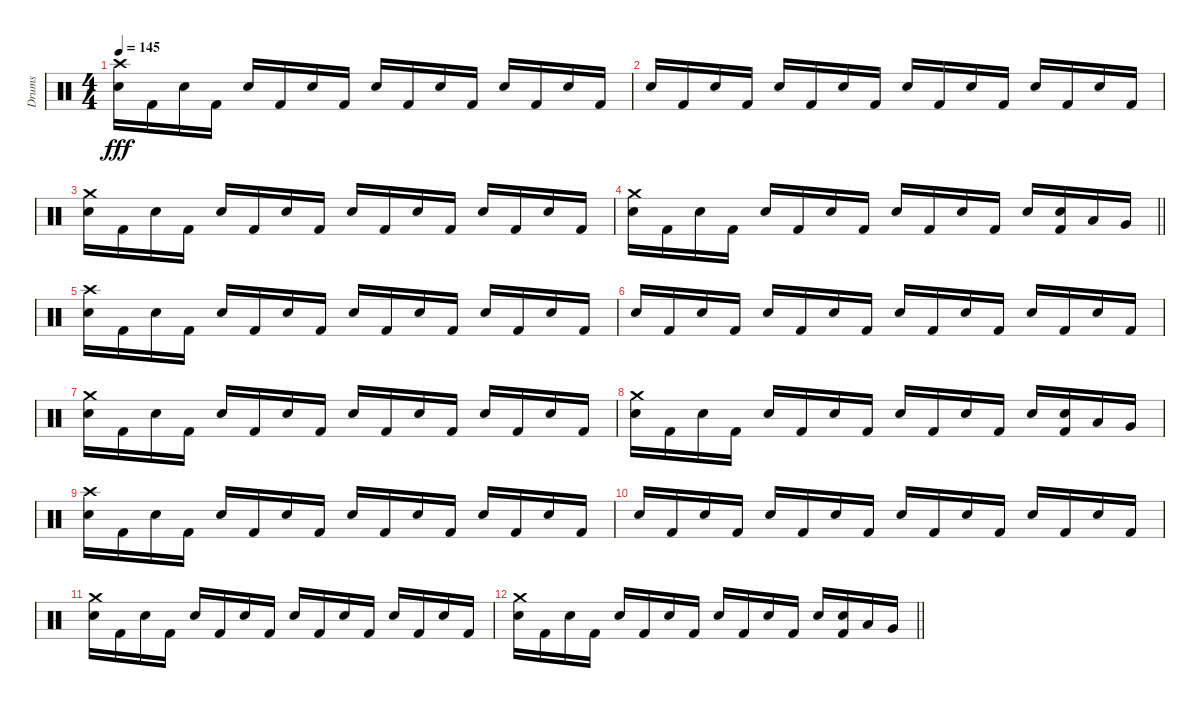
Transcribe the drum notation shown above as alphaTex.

\track ("Drums" "Drums") {instrument percussion}
\staff {score}
\articulation defaults
\ts (4 4)
\tempo 145
\clef neutral
\ks c
("Crash high (hit)" "Snare (hit) 2").16{dy fff} "Kick (hit) 2".16 "Snare (hit) 2".16 "Kick (hit) 2".16 "Snare (hit) 2".16 "Kick (hit) 2".16 "Snare (hit) 2".16 "Kick (hit) 2".16 "Snare (hit) 2".16 "Kick (hit) 2".16 "Snare (hit) 2".16 "Kick (hit) 2".16 "Snare (hit) 2".16 "Kick (hit) 2".16 "Snare (hit) 2".16 "Kick (hit) 2".16 |
"Snare (hit) 2".16 "Kick (hit) 2".16 "Snare (hit) 2".16 "Kick (hit) 2".16 "Snare (hit) 2".16 "Kick (hit) 2".16 "Snare (hit) 2".16 "Kick (hit) 2".16 "Snare (hit) 2".16 "Kick (hit) 2".16 "Snare (hit) 2".16 "Kick (hit) 2".16 "Snare (hit) 2".16 "Kick (hit) 2".16 "Snare (hit) 2".16 "Kick (hit) 2".16 |
("Crash medium (hit)" "Snare (hit) 2").16 "Kick (hit) 2".16 "Snare (hit) 2".16 "Kick (hit) 2".16 "Snare (hit) 2".16 "Kick (hit) 2".16 "Snare (hit) 2".16 "Kick (hit) 2".16 "Snare (hit) 2".16 "Kick (hit) 2".16 "Snare (hit) 2".16 "Kick (hit) 2".16 "Snare (hit) 2".16 "Kick (hit) 2".16 "Snare (hit) 2".16 "Kick (hit) 2".16 |
\barLineRight lightlight
("Crash medium (hit)" "Snare (hit) 2").16 "Kick (hit) 2".16 "Snare (hit) 2".16 "Kick (hit) 2".16 "Snare (hit) 2".16 "Kick (hit) 2".16 "Snare (hit) 2".16 "Kick (hit) 2".16 "Snare (hit) 2".16 "Kick (hit) 2".16 "Snare (hit) 2".16 "Kick (hit) 2".16 "Snare (hit) 2".16 ("Kick (hit) 2" "Snare (hit) 2").16 "Low Tom (hit)".16 "Very Low Tom (hit)".16 |
("Crash high (hit)" "Snare (hit) 2").16 "Kick (hit) 2".16 "Snare (hit) 2".16 "Kick (hit) 2".16 "Snare (hit) 2".16 "Kick (hit) 2".16 "Snare (hit) 2".16 "Kick (hit) 2".16 "Snare (hit) 2".16 "Kick (hit) 2".16 "Snare (hit) 2".16 "Kick (hit) 2".16 "Snare (hit) 2".16 "Kick (hit) 2".16 "Snare (hit) 2".16 "Kick (hit) 2".16 |
"Snare (hit) 2".16 "Kick (hit) 2".16 "Snare (hit) 2".16 "Kick (hit) 2".16 "Snare (hit) 2".16 "Kick (hit) 2".16 "Snare (hit) 2".16 "Kick (hit) 2".16 "Snare (hit) 2".16 "Kick (hit) 2".16 "Snare (hit) 2".16 "Kick (hit) 2".16 "Snare (hit) 2".16 "Kick (hit) 2".16 "Snare (hit) 2".16 "Kick (hit) 2".16 |
("Crash medium (hit)" "Snare (hit) 2").16 "Kick (hit) 2".16 "Snare (hit) 2".16 "Kick (hit) 2".16 "Snare (hit) 2".16 "Kick (hit) 2".16 "Snare (hit) 2".16 "Kick (hit) 2".16 "Snare (hit) 2".16 "Kick (hit) 2".16 "Snare (hit) 2".16 "Kick (hit) 2".16 "Snare (hit) 2".16 "Kick (hit) 2".16 "Snare (hit) 2".16 "Kick (hit) 2".16 |
("Crash medium (hit)" "Snare (hit) 2").16 "Kick (hit) 2".16 "Snare (hit) 2".16 "Kick (hit) 2".16 "Snare (hit) 2".16 "Kick (hit) 2".16 "Snare (hit) 2".16 "Kick (hit) 2".16 "Snare (hit) 2".16 "Kick (hit) 2".16 "Snare (hit) 2".16 "Kick (hit) 2".16 "Snare (hit) 2".16 ("Kick (hit) 2" "Snare (hit) 2").16 "Low Tom (hit)".16 "Very Low Tom (hit)".16 |
("Crash high (hit)" "Snare (hit) 2").16 "Kick (hit) 2".16 "Snare (hit) 2".16 "Kick (hit) 2".16 "Snare (hit) 2".16 "Kick (hit) 2".16 "Snare (hit) 2".16 "Kick (hit) 2".16 "Snare (hit) 2".16 "Kick (hit) 2".16 "Snare (hit) 2".16 "Kick (hit) 2".16 "Snare (hit) 2".16 "Kick (hit) 2".16 "Snare (hit) 2".16 "Kick (hit) 2".16 |
"Snare (hit) 2".16 "Kick (hit) 2".16 "Snare (hit) 2".16 "Kick (hit) 2".16 "Snare (hit) 2".16 "Kick (hit) 2".16 "Snare (hit) 2".16 "Kick (hit) 2".16 "Snare (hit) 2".16 "Kick (hit) 2".16 "Snare (hit) 2".16 "Kick (hit) 2".16 "Snare (hit) 2".16 "Kick (hit) 2".16 "Snare (hit) 2".16 "Kick (hit) 2".16 |
("Crash medium (hit)" "Snare (hit) 2").16 "Kick (hit) 2".16 "Snare (hit) 2".16 "Kick (hit) 2".16 "Snare (hit) 2".16 "Kick (hit) 2".16 "Snare (hit) 2".16 "Kick (hit) 2".16 "Snare (hit) 2".16 "Kick (hit) 2".16 "Snare (hit) 2".16 "Kick (hit) 2".16 "Snare (hit) 2".16 "Kick (hit) 2".16 "Snare (hit) 2".16 "Kick (hit) 2".16 |
\barLineRight lightlight
("Crash medium (hit)" "Snare (hit) 2").16 "Kick (hit) 2".16 "Snare (hit) 2".16 "Kick (hit) 2".16 "Snare (hit) 2".16 "Kick (hit) 2".16 "Snare (hit) 2".16 "Kick (hit) 2".16 "Snare (hit) 2".16 "Kick (hit) 2".16 "Snare (hit) 2".16 "Kick (hit) 2".16 "Snare (hit) 2".16 ("Kick (hit) 2" "Snare (hit) 2").16 "Low Tom (hit)".16 "Very Low Tom (hit)".16
